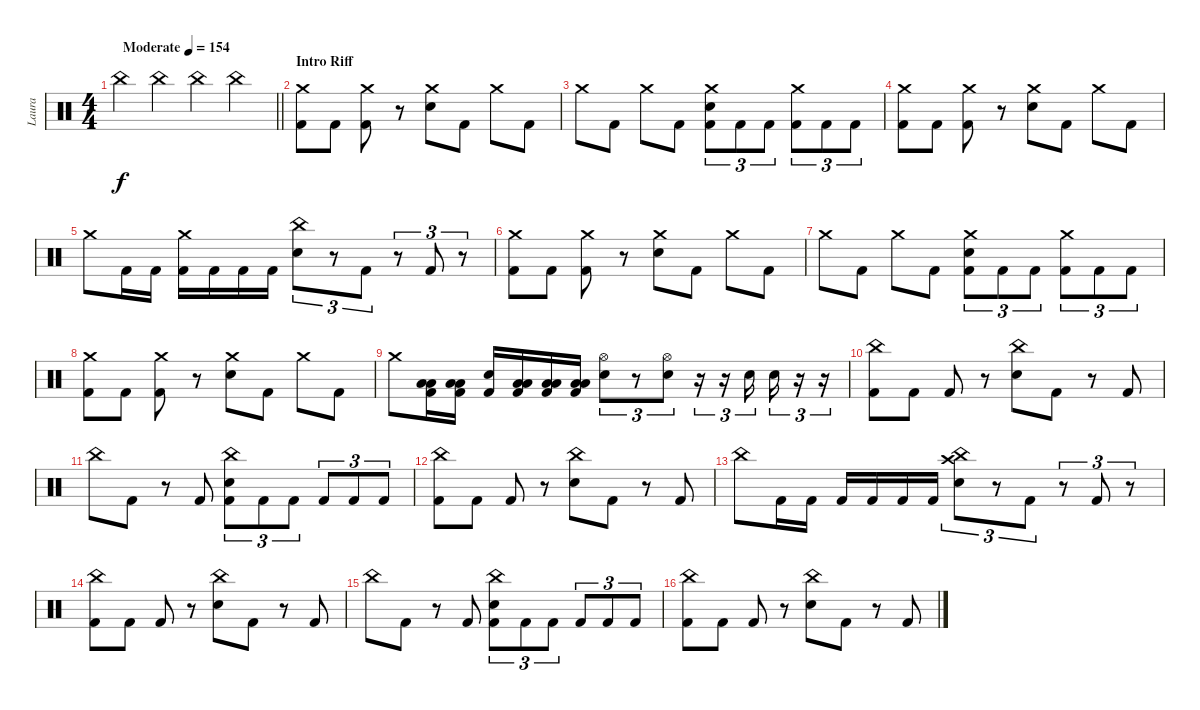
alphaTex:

\track ("Laura" "Laura") {instrument percussion}
\staff {score}
\articulation defaults
\ts (4 4)
\tempo (154 "Moderate")
\clef neutral
\barLineRight lightlight
\ks c "China (hit)".4{dy f} "China (hit)".4 "China (hit)".4 "China (hit)".4
|
\section ("" "Intro Riff")
("Crash medium (hit)" "Kick (hit) 2").8 "Kick (hit) 2".8 ("Crash medium (hit)" "Kick (hit) 2").8 r.8 ("Crash medium (hit)" "Electric Snare (hit)").8 "Kick (hit) 2".8 "Crash medium (hit)".8 "Kick (hit) 2".8 |
"Crash medium (hit)".8 "Kick (hit) 2".8 "Crash medium (hit)".8 "Kick (hit) 2".8 ("Crash medium (hit)" "Electric Snare (hit)" "Kick (hit) 2").8{tu (3 2)} "Kick (hit) 2".8{tu (3 2)} "Kick (hit) 2".8{tu (3 2)} ("Crash medium (hit)" "Kick (hit) 2").8{tu (3 2)} "Kick (hit) 2".8{tu (3 2)} "Kick (hit) 2".8{tu (3 2)} |
("Crash medium (hit)" "Kick (hit) 2").8 "Kick (hit) 2".8 ("Crash medium (hit)" "Kick (hit) 2").8 r.8 ("Crash medium (hit)" "Electric Snare (hit)").8 "Kick (hit) 2".8 "Crash medium (hit)".8 "Kick (hit) 2".8 |
"Crash medium (hit)".8 "Kick (hit) 2".16 "Kick (hit) 2".16 ("Crash medium (hit)" "Kick (hit) 2").16 "Kick (hit) 2".16 "Kick (hit) 2".16 "Kick (hit) 2".16 ("China (hit)" "Electric Snare (hit)").8{tu (3 2)} r.8{tu (3 2)} "Kick (hit) 2".8{tu (3 2)} r.8{tu (3 2)} "Kick (hit) 2".8{tu (3 2)} r.8{tu (3 2)} |
("Crash medium (hit)" "Kick (hit) 2").8 "Kick (hit) 2".8 ("Crash medium (hit)" "Kick (hit) 2").8 r.8 ("Crash medium (hit)" "Electric Snare (hit)").8 "Kick (hit) 2".8 "Crash medium (hit)".8 "Kick (hit) 2".8 |
"Crash medium (hit)".8 "Kick (hit) 2".8 "Crash medium (hit)".8 "Kick (hit) 2".8 ("Crash medium (hit)" "Electric Snare (hit)" "Kick (hit) 2").8{tu (3 2)} "Kick (hit) 2".8{tu (3 2)} "Kick (hit) 2".8{tu (3 2)} ("Crash medium (hit)" "Kick (hit) 2").8{tu (3 2)} "Kick (hit) 2".8{tu (3 2)} "Kick (hit) 2".8{tu (3 2)} |
("Crash medium (hit)" "Kick (hit) 2").8 "Kick (hit) 2".8 ("Crash medium (hit)" "Kick (hit) 2").8 r.8 ("Crash medium (hit)" "Electric Snare (hit)").8 "Kick (hit) 2".8 "Crash medium (hit)".8 "Kick (hit) 2".8 |
"Crash medium (hit)".8 ("Low Floor Tom (hit)" "Low Floor Tom (hit)" "Kick (hit) 2").16 ("Low Tom (hit)" "Low Tom (hit)" "Kick (hit) 2").16 ("Electric Snare (hit)" "Kick (hit) 2").16 ("Low Tom (hit)" "Low Tom (hit)" "Kick (hit) 2").16 ("Low Tom (hit)" "Low Tom (hit)" "Kick (hit) 2").16 ("Low Tom (hit)" "Low Tom (hit)" "Kick (hit) 2").16 ("Hi-Hat (open)" "Electric Snare (hit)").8{tu (3 2)} r.8{tu (3 2)} ("Hi-Hat (open)" "Electric Snare (hit)").8{tu (3 2)} r.16{tu (3 2)} r.16{tu (3 2)} "Electric Snare (hit)".16{tu (3 2)} "Electric Snare (hit)".16{tu (3 2)} r.16{tu (3 2)} r.16{tu (3 2)} |
("China (hit)" "Kick (hit) 2").8 "Kick (hit) 2".8 "Kick (hit) 2".8 r.8 ("China (hit)" "Electric Snare (hit)").8 "Kick (hit) 2".8 r.8 "Kick (hit) 2".8 |
"China (hit)".8 "Kick (hit) 2".8 r.8 "Kick (hit) 2".8 ("China (hit)" "Electric Snare (hit)" "Kick (hit) 2").8{tu (3 2)} "Kick (hit) 2".8{tu (3 2)} "Kick (hit) 2".8{tu (3 2)} "Kick (hit) 2".8{tu (3 2)} "Kick (hit) 2".8{tu (3 2)} "Kick (hit) 2".8{tu (3 2)} |
("China (hit)" "Kick (hit) 2").8 "Kick (hit) 2".8 "Kick (hit) 2".8 r.8 ("China (hit)" "Electric Snare (hit)").8 "Kick (hit) 2".8 r.8 "Kick (hit) 2".8 |
"China (hit)".8 "Kick (hit) 2".16 "Kick (hit) 2".16 "Kick (hit) 2".16 "Kick (hit) 2".16 "Kick (hit) 2".16 "Kick (hit) 2".16 ("China (hit)" "Crash high (hit)" "Electric Snare (hit)").8{tu (3 2)} r.8{tu (3 2)} "Kick (hit) 2".8{tu (3 2)} r.8{tu (3 2)} "Kick (hit) 2".8{tu (3 2)} r.8{tu (3 2)} |
("China (hit)" "Kick (hit) 2").8 "Kick (hit) 2".8 "Kick (hit) 2".8 r.8 ("China (hit)" "Electric Snare (hit)").8 "Kick (hit) 2".8 r.8 "Kick (hit) 2".8 |
"China (hit)".8 "Kick (hit) 2".8 r.8 "Kick (hit) 2".8 ("China (hit)" "Electric Snare (hit)" "Kick (hit) 2").8{tu (3 2)} "Kick (hit) 2".8{tu (3 2)} "Kick (hit) 2".8{tu (3 2)} "Kick (hit) 2".8{tu (3 2)} "Kick (hit) 2".8{tu (3 2)} "Kick (hit) 2".8{tu (3 2)} |
("China (hit)" "Kick (hit) 2").8 "Kick (hit) 2".8 "Kick (hit) 2".8 r.8 ("China (hit)" "Electric Snare (hit)").8 "Kick (hit) 2".8 r.8 "Kick (hit) 2".8
